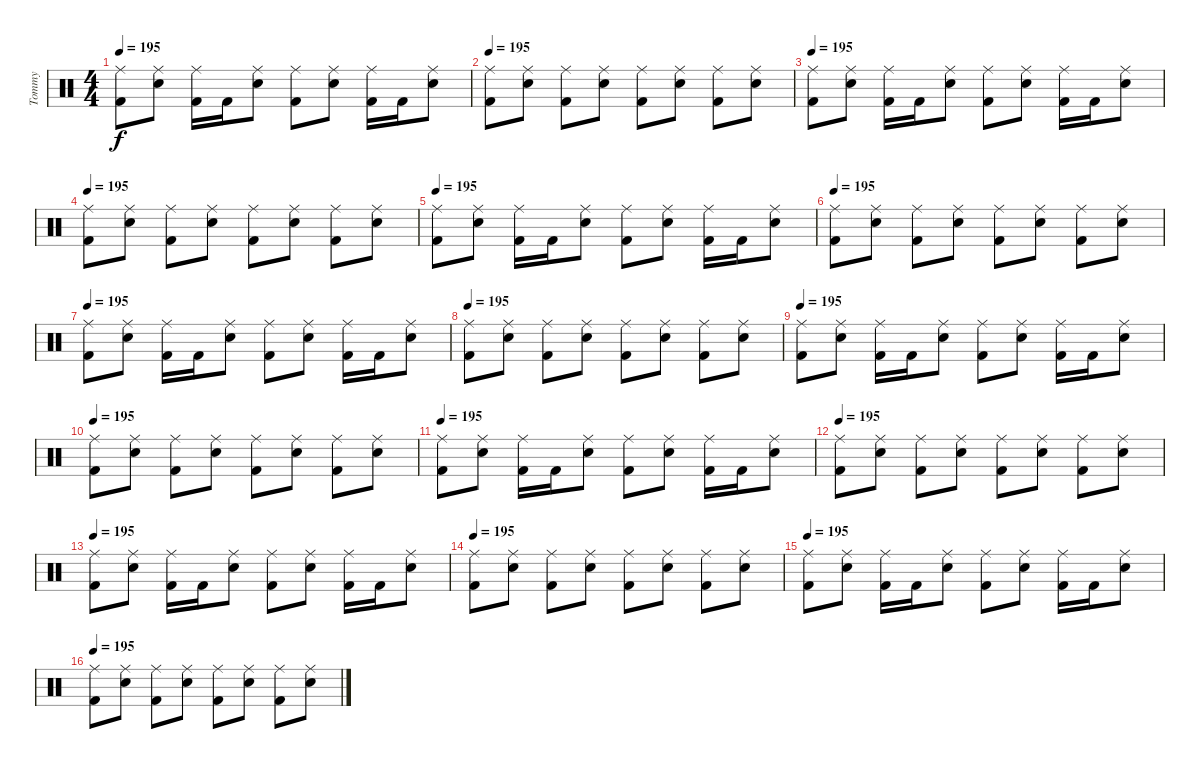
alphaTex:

\track ("Tommy" "Tommy") {instrument percussion}
\staff {score}
\articulation defaults
\ts (4 4)
\tempo 195
\clef neutral
\ks c
("Kick (hit) 2" "Ride (middle)").8{dy f} ("Snare (hit) 2" "Ride (middle)").8 ("Kick (hit) 2" "Ride (middle)").16 "Kick (hit) 2".16 ("Snare (hit) 2" "Ride (middle)").8 ("Kick (hit) 2" "Ride (middle)").8 ("Snare (hit) 2" "Ride (middle)").8 ("Kick (hit) 2" "Ride (middle)").16 "Kick (hit) 2".16 ("Snare (hit) 2" "Ride (middle)").8 |
\tempo 195
("Kick (hit) 2" "Ride (middle)").8 ("Snare (hit) 2" "Ride (middle)").8 ("Kick (hit) 2" "Ride (middle)").8 ("Snare (hit) 2" "Ride (middle)").8 ("Kick (hit) 2" "Ride (middle)").8 ("Snare (hit) 2" "Ride (middle)").8 ("Kick (hit) 2" "Ride (middle)").8 ("Snare (hit) 2" "Ride (middle)").8 |
\tempo 195
("Kick (hit) 2" "Ride (middle)").8 ("Snare (hit) 2" "Ride (middle)").8 ("Kick (hit) 2" "Ride (middle)").16 "Kick (hit) 2".16 ("Snare (hit) 2" "Ride (middle)").8 ("Kick (hit) 2" "Ride (middle)").8 ("Snare (hit) 2" "Ride (middle)").8 ("Kick (hit) 2" "Ride (middle)").16 "Kick (hit) 2".16 ("Snare (hit) 2" "Ride (middle)").8 |
\tempo 195
("Kick (hit) 2" "Ride (middle)").8 ("Snare (hit) 2" "Ride (middle)").8 ("Kick (hit) 2" "Ride (middle)").8 ("Snare (hit) 2" "Ride (middle)").8 ("Kick (hit) 2" "Ride (middle)").8 ("Snare (hit) 2" "Ride (middle)").8 ("Kick (hit) 2" "Ride (middle)").8 ("Snare (hit) 2" "Ride (middle)").8 |
\tempo 195
("Kick (hit) 2" "Ride (middle)").8 ("Snare (hit) 2" "Ride (middle)").8 ("Kick (hit) 2" "Ride (middle)").16 "Kick (hit) 2".16 ("Snare (hit) 2" "Ride (middle)").8 ("Kick (hit) 2" "Ride (middle)").8 ("Snare (hit) 2" "Ride (middle)").8 ("Kick (hit) 2" "Ride (middle)").16 "Kick (hit) 2".16 ("Snare (hit) 2" "Ride (middle)").8 |
\tempo 195
("Kick (hit) 2" "Ride (middle)").8 ("Snare (hit) 2" "Ride (middle)").8 ("Kick (hit) 2" "Ride (middle)").8 ("Snare (hit) 2" "Ride (middle)").8 ("Kick (hit) 2" "Ride (middle)").8 ("Snare (hit) 2" "Ride (middle)").8 ("Kick (hit) 2" "Ride (middle)").8 ("Snare (hit) 2" "Ride (middle)").8 |
\tempo 195
("Kick (hit) 2" "Ride (middle)").8 ("Snare (hit) 2" "Ride (middle)").8 ("Kick (hit) 2" "Ride (middle)").16 "Kick (hit) 2".16 ("Snare (hit) 2" "Ride (middle)").8 ("Kick (hit) 2" "Ride (middle)").8 ("Snare (hit) 2" "Ride (middle)").8 ("Kick (hit) 2" "Ride (middle)").16 "Kick (hit) 2".16 ("Snare (hit) 2" "Ride (middle)").8 |
\tempo 195
("Kick (hit) 2" "Ride (middle)").8 ("Snare (hit) 2" "Ride (middle)").8 ("Kick (hit) 2" "Ride (middle)").8 ("Snare (hit) 2" "Ride (middle)").8 ("Kick (hit) 2" "Ride (middle)").8 ("Snare (hit) 2" "Ride (middle)").8 ("Kick (hit) 2" "Ride (middle)").8 ("Snare (hit) 2" "Ride (middle)").8 |
\tempo 195
("Kick (hit) 2" "Ride (middle)").8 ("Snare (hit) 2" "Ride (middle)").8 ("Kick (hit) 2" "Ride (middle)").16 "Kick (hit) 2".16 ("Snare (hit) 2" "Ride (middle)").8 ("Kick (hit) 2" "Ride (middle)").8 ("Snare (hit) 2" "Ride (middle)").8 ("Kick (hit) 2" "Ride (middle)").16 "Kick (hit) 2".16 ("Snare (hit) 2" "Ride (middle)").8 |
\tempo 195
("Kick (hit) 2" "Ride (middle)").8 ("Snare (hit) 2" "Ride (middle)").8 ("Kick (hit) 2" "Ride (middle)").8 ("Snare (hit) 2" "Ride (middle)").8 ("Kick (hit) 2" "Ride (middle)").8 ("Snare (hit) 2" "Ride (middle)").8 ("Kick (hit) 2" "Ride (middle)").8 ("Snare (hit) 2" "Ride (middle)").8 |
\tempo 195
("Kick (hit) 2" "Ride (middle)").8 ("Snare (hit) 2" "Ride (middle)").8 ("Kick (hit) 2" "Ride (middle)").16 "Kick (hit) 2".16 ("Snare (hit) 2" "Ride (middle)").8 ("Kick (hit) 2" "Ride (middle)").8 ("Snare (hit) 2" "Ride (middle)").8 ("Kick (hit) 2" "Ride (middle)").16 "Kick (hit) 2".16 ("Snare (hit) 2" "Ride (middle)").8 |
\tempo 195
("Kick (hit) 2" "Ride (middle)").8 ("Snare (hit) 2" "Ride (middle)").8 ("Kick (hit) 2" "Ride (middle)").8 ("Snare (hit) 2" "Ride (middle)").8 ("Kick (hit) 2" "Ride (middle)").8 ("Snare (hit) 2" "Ride (middle)").8 ("Kick (hit) 2" "Ride (middle)").8 ("Snare (hit) 2" "Ride (middle)").8 |
\tempo 195
("Kick (hit) 2" "Ride (middle)").8 ("Snare (hit) 2" "Ride (middle)").8 ("Kick (hit) 2" "Ride (middle)").16 "Kick (hit) 2".16 ("Snare (hit) 2" "Ride (middle)").8 ("Kick (hit) 2" "Ride (middle)").8 ("Snare (hit) 2" "Ride (middle)").8 ("Kick (hit) 2" "Ride (middle)").16 "Kick (hit) 2".16 ("Snare (hit) 2" "Ride (middle)").8 |
\tempo 195
("Kick (hit) 2" "Ride (middle)").8 ("Snare (hit) 2" "Ride (middle)").8 ("Kick (hit) 2" "Ride (middle)").8 ("Snare (hit) 2" "Ride (middle)").8 ("Kick (hit) 2" "Ride (middle)").8 ("Snare (hit) 2" "Ride (middle)").8 ("Kick (hit) 2" "Ride (middle)").8 ("Snare (hit) 2" "Ride (middle)").8 |
\tempo 195
("Kick (hit) 2" "Ride (middle)").8 ("Snare (hit) 2" "Ride (middle)").8 ("Kick (hit) 2" "Ride (middle)").16 "Kick (hit) 2".16 ("Snare (hit) 2" "Ride (middle)").8 ("Kick (hit) 2" "Ride (middle)").8 ("Snare (hit) 2" "Ride (middle)").8 ("Kick (hit) 2" "Ride (middle)").16 "Kick (hit) 2".16 ("Snare (hit) 2" "Ride (middle)").8 |
\tempo 195
("Kick (hit) 2" "Ride (middle)").8 ("Snare (hit) 2" "Ride (middle)").8 ("Kick (hit) 2" "Ride (middle)").8 ("Snare (hit) 2" "Ride (middle)").8 ("Kick (hit) 2" "Ride (middle)").8 ("Snare (hit) 2" "Ride (middle)").8 ("Kick (hit) 2" "Ride (middle)").8 ("Snare (hit) 2" "Ride (middle)").8
